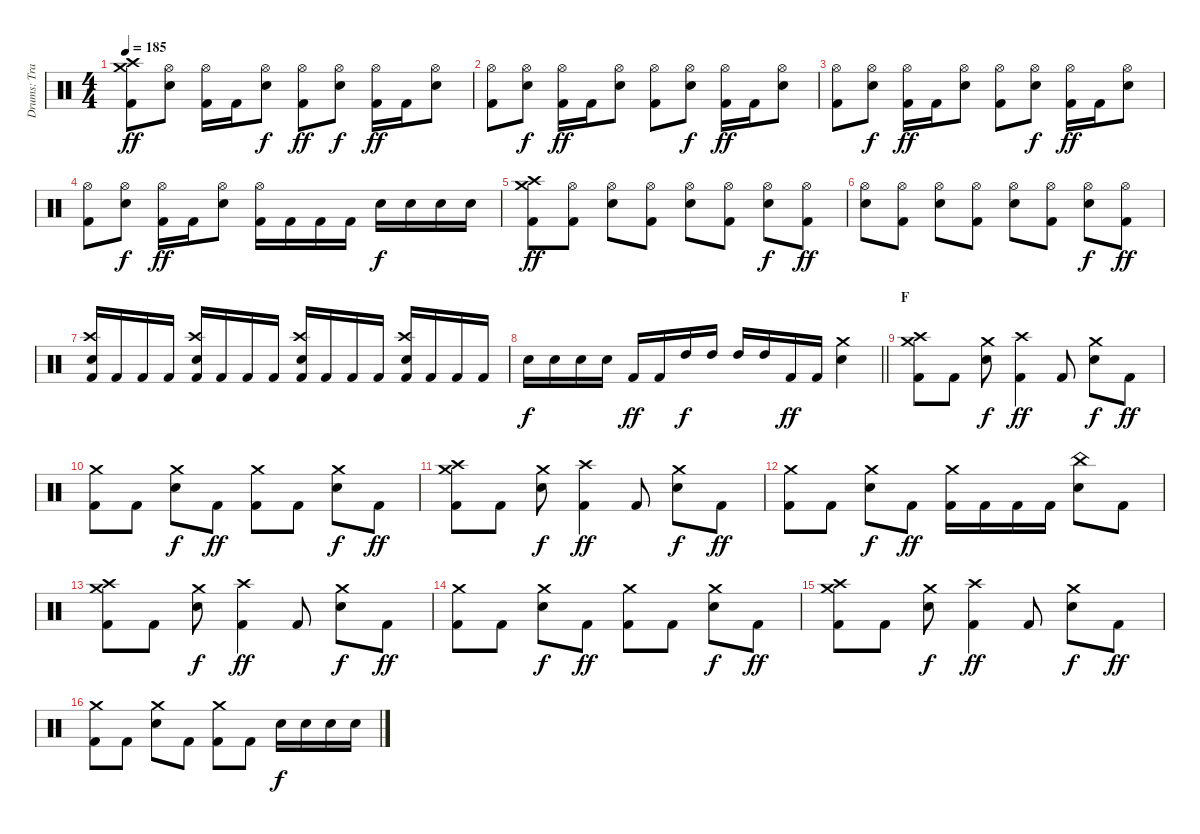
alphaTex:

\track ("Drums: Travis Clarke" "Drums: Tra") {instrument percussion}
\staff {score}
\articulation defaults
\ts (4 4)
\tempo 185
\clef neutral
\ks c
("Kick (hit) 2" "Crash high (hit)" "Crash medium (hit)").8{dy ff} ("Snare (hit) 2" "Hi-Hat (open)").8 ("Kick (hit) 2" "Hi-Hat (open)").16 "Kick (hit) 2".16 ("Snare (hit) 2" "Hi-Hat (open)").8{dy f} ("Kick (hit) 2" "Hi-Hat (open)").8{dy ff} ("Snare (hit) 2" "Hi-Hat (open)").8{dy f} ("Kick (hit) 2" "Hi-Hat (open)").16{dy ff} "Kick (hit) 2".16 ("Snare (hit) 2" "Hi-Hat (open)").8 |
("Kick (hit) 2" "Hi-Hat (open)").8 ("Snare (hit) 2" "Hi-Hat (open)").8{dy f} ("Kick (hit) 2" "Hi-Hat (open)").16{dy ff} "Kick (hit) 2".16 ("Snare (hit) 2" "Hi-Hat (open)").8 ("Kick (hit) 2" "Hi-Hat (open)").8 ("Snare (hit) 2" "Hi-Hat (open)").8{dy f} ("Kick (hit) 2" "Hi-Hat (open)").16{dy ff} "Kick (hit) 2".16 ("Snare (hit) 2" "Hi-Hat (open)").8 |
("Kick (hit) 2" "Hi-Hat (open)").8 ("Snare (hit) 2" "Hi-Hat (open)").8{dy f} ("Kick (hit) 2" "Hi-Hat (open)").16{dy ff} "Kick (hit) 2".16 ("Snare (hit) 2" "Hi-Hat (open)").8 ("Kick (hit) 2" "Hi-Hat (open)").8 ("Snare (hit) 2" "Hi-Hat (open)").8{dy f} ("Kick (hit) 2" "Hi-Hat (open)").16{dy ff} "Kick (hit) 2".16 ("Snare (hit) 2" "Hi-Hat (open)").8 |
("Kick (hit) 2" "Hi-Hat (open)").8 ("Snare (hit) 2" "Hi-Hat (open)").8{dy f} ("Kick (hit) 2" "Hi-Hat (open)").16{dy ff} "Kick (hit) 2".16 ("Snare (hit) 2" "Hi-Hat (open)").8 ("Kick (hit) 2" "Hi-Hat (open)").16 "Kick (hit) 2".16 "Kick (hit) 2".16 "Kick (hit) 2".16 "Snare (hit) 2".16{dy f} "Snare (hit) 2".16 "Snare (hit) 2".16 "Snare (hit) 2".16 |
("Kick (hit) 2" "Crash high (hit)" "Crash medium (hit)").8{dy ff} ("Kick (hit) 2" "Hi-Hat (open)").8 ("Snare (hit) 2" "Hi-Hat (open)").8 ("Kick (hit) 2" "Hi-Hat (open)").8 ("Snare (hit) 2" "Hi-Hat (open)").8 ("Kick (hit) 2" "Hi-Hat (open)").8 ("Snare (hit) 2" "Hi-Hat (open)").8{dy f} ("Kick (hit) 2" "Hi-Hat (open)").8{dy ff} |
("Snare (hit) 2" "Hi-Hat (open)").8 ("Kick (hit) 2" "Hi-Hat (open)").8 ("Snare (hit) 2" "Hi-Hat (open)").8 ("Kick (hit) 2" "Hi-Hat (open)").8 ("Snare (hit) 2" "Hi-Hat (open)").8 ("Kick (hit) 2" "Hi-Hat (open)").8 ("Snare (hit) 2" "Hi-Hat (open)").8{dy f} ("Kick (hit) 2" "Hi-Hat (open)").8{dy ff} |
("Kick (hit) 2" "Snare (hit) 2" "Crash high (hit)").16 "Kick (hit) 2".16 "Kick (hit) 2".16 "Kick (hit) 2".16 ("Kick (hit) 2" "Snare (hit) 2" "Crash high (hit)").16 "Kick (hit) 2".16 "Kick (hit) 2".16 "Kick (hit) 2".16 ("Kick (hit) 2" "Snare (hit) 2" "Crash high (hit)").16 "Kick (hit) 2".16 "Kick (hit) 2".16 "Kick (hit) 2".16 ("Kick (hit) 2" "Snare (hit) 2" "Crash high (hit)").16 "Kick (hit) 2".16 "Kick (hit) 2".16 "Kick (hit) 2".16 |
\barLineRight lightlight "Snare (hit) 2".16{dy f} "Snare (hit) 2".16 "Snare (hit) 2".16 "Snare (hit) 2".16 "Kick (hit) 2".16{dy ff} "Kick (hit) 2".16 "High Tom (hit)".16{dy f} "High Tom (hit)".16 "High Tom (hit)".16 "High Tom (hit)".16 "Kick (hit) 2".16{dy ff} "Kick (hit) 2".16
("Snare (hit) 2" "Crash medium (hit)").4 |
\section ("" "F")
("Kick (hit) 2" "Crash high (hit)" "Crash medium (hit)").8 "Kick (hit) 2".8 ("Snare (hit) 2" "Crash medium (hit)").8{dy f} ("Kick (hit) 2" "Crash high (hit)").4{dy ff} "Kick (hit) 2".8 ("Snare (hit) 2" "Crash medium (hit)").8{dy f} "Kick (hit) 2".8{dy ff} |
("Kick (hit) 2" "Crash medium (hit)").8 "Kick (hit) 2".8 ("Snare (hit) 2" "Crash medium (hit)").8{dy f} "Kick (hit) 2".8{dy ff} ("Kick (hit) 2" "Crash medium (hit)").8 "Kick (hit) 2".8 ("Snare (hit) 2" "Crash medium (hit)").8{dy f} "Kick (hit) 2".8{dy ff} |
("Kick (hit) 2" "Crash high (hit)" "Crash medium (hit)").8 "Kick (hit) 2".8 ("Snare (hit) 2" "Crash medium (hit)").8{dy f} ("Kick (hit) 2" "Crash high (hit)").4{dy ff} "Kick (hit) 2".8 ("Snare (hit) 2" "Crash medium (hit)").8{dy f} "Kick (hit) 2".8{dy ff} |
("Kick (hit) 2" "Crash medium (hit)").8 "Kick (hit) 2".8 ("Snare (hit) 2" "Crash medium (hit)").8{dy f} "Kick (hit) 2".8{dy ff} ("Kick (hit) 2" "Crash medium (hit)").16 "Kick (hit) 2".16 "Kick (hit) 2".16 "Kick (hit) 2".16 ("Snare (hit) 2" "China (hit)").8 "Kick (hit) 2".8 |
("Kick (hit) 2" "Crash high (hit)" "Crash medium (hit)").8 "Kick (hit) 2".8 ("Snare (hit) 2" "Crash medium (hit)").8{dy f} ("Kick (hit) 2" "Crash high (hit)").4{dy ff} "Kick (hit) 2".8 ("Snare (hit) 2" "Crash medium (hit)").8{dy f} "Kick (hit) 2".8{dy ff} |
("Kick (hit) 2" "Crash medium (hit)").8 "Kick (hit) 2".8 ("Snare (hit) 2" "Crash medium (hit)").8{dy f} "Kick (hit) 2".8{dy ff} ("Kick (hit) 2" "Crash medium (hit)").8 "Kick (hit) 2".8 ("Snare (hit) 2" "Crash medium (hit)").8{dy f} "Kick (hit) 2".8{dy ff} |
("Kick (hit) 2" "Crash high (hit)" "Crash medium (hit)").8 "Kick (hit) 2".8 ("Snare (hit) 2" "Crash medium (hit)").8{dy f} ("Kick (hit) 2" "Crash high (hit)").4{dy ff} "Kick (hit) 2".8 ("Snare (hit) 2" "Crash medium (hit)").8{dy f} "Kick (hit) 2".8{dy ff} |
("Kick (hit) 2" "Crash medium (hit)").8 "Kick (hit) 2".8 ("Snare (hit) 2" "Crash medium (hit)").8 "Kick (hit) 2".8 ("Kick (hit) 2" "Crash medium (hit)").8 "Kick (hit) 2".8 "Snare (hit) 2".16{dy f} "Snare (hit) 2".16 "Snare (hit) 2".16 "Snare (hit) 2".16
